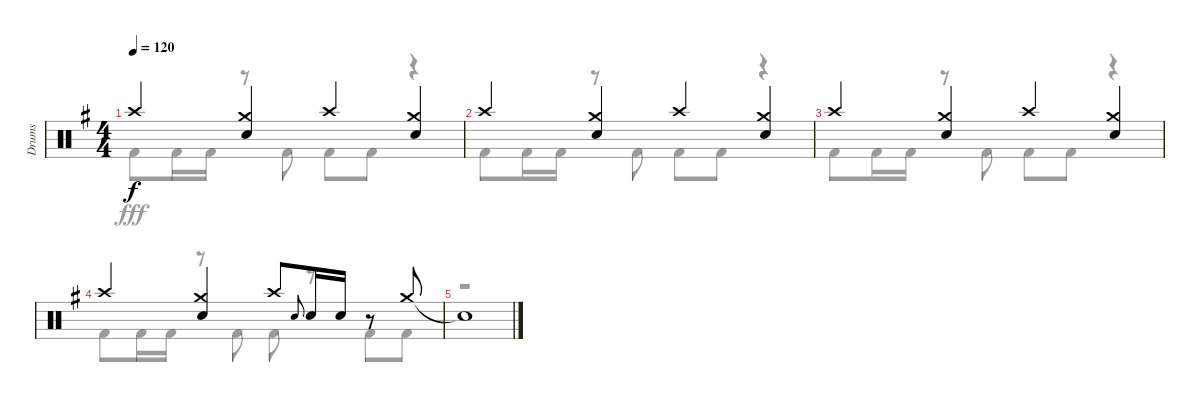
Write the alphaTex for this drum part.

\track ("Drums" "Drums") {instrument percussion}
\staff {score}
\articulation defaults
\voice
\ts (4 4)
\tempo 120
\clef neutral
\ks eminor "Crash high (hit)".4{dy f}
("Crash medium (hit)" "Snare (hit) 2").4 "Crash high (hit)".4 ("Crash medium (hit)" "Snare (hit) 2").4 |
"Crash high (hit)".4 ("Crash medium (hit)" "Snare (hit) 2").4 "Crash high (hit)".4 ("Crash medium (hit)" "Snare (hit) 2").4 |
"Crash high (hit)".4 ("Crash medium (hit)" "Snare (hit) 2").4 "Crash high (hit)".4 ("Crash medium (hit)" "Snare (hit) 2").4 |
"Crash high (hit)".4 ("Crash medium (hit)" "Snare (hit) 2").4 "Crash high (hit)".8 "Snare (hit) 2".8{gr onbeat} "Snare (hit) 2".16 "Snare (hit) 2".16 r.8 "Crash medium (hit)".8 |
"Snare (hit)"{t}.1
\voice
\clef neutral
\ottava regular
\simile none
\ks eminor "Kick (hit) 2".8{dy fff} "Kick (hit) 2".16 "Kick (hit) 2".16
r.8 "Kick (hit) 2".8 "Kick (hit) 2".8 "Kick (hit) 2".8 r.4 |
"Kick (hit) 2".8 "Kick (hit) 2".16 "Kick (hit) 2".16 r.8 "Kick (hit) 2".8 "Kick (hit) 2".8 "Kick (hit) 2".8 r.4 |
"Kick (hit) 2".8 "Kick (hit) 2".16 "Kick (hit) 2".16 r.8 "Kick (hit) 2".8 "Kick (hit) 2".8 "Kick (hit) 2".8 r.4 |
"Kick (hit) 2".8 "Kick (hit) 2".16 "Kick (hit) 2".16 r.8 "Kick (hit) 2".8 "Kick (hit) 2".8 r.8 "Kick (hit) 2".8 "Kick (hit) 2".8 |
r.1
